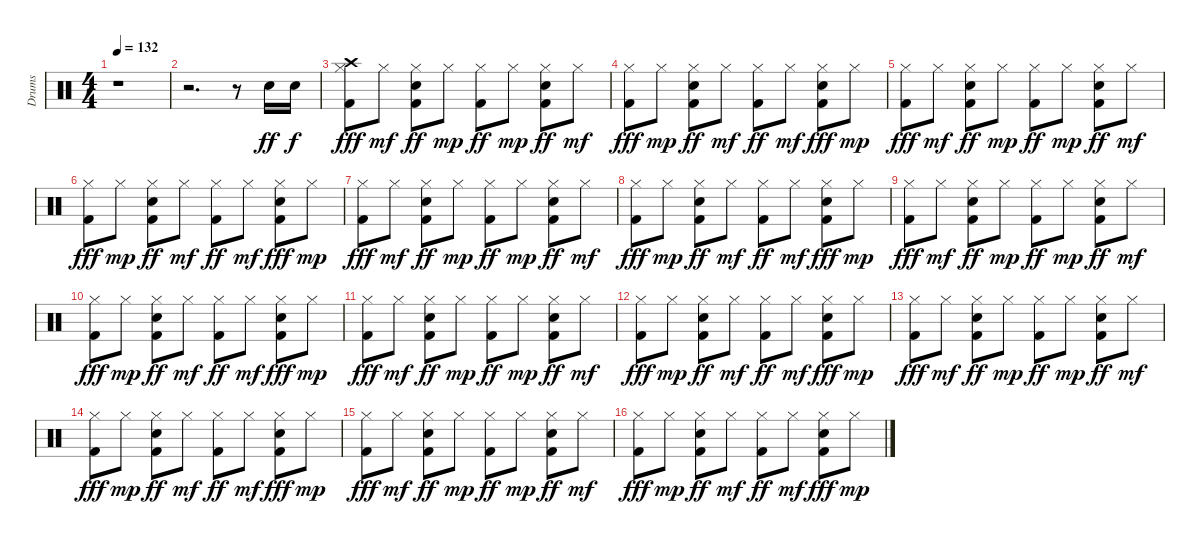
\track ("Drums" "Drums") {instrument percussion}
\staff {score}
\articulation defaults
\ts (4 4)
\tempo 132
\clef neutral
\ks c
r.1{dy ff} |
r.2{d} r.8 "Snare (hit) 2".16 "Snare (hit) 2".16{dy f} |
("Crash high (hit)" "Kick (hit) 2" "Hi-Hat (closed)").8{dy fff} "Hi-Hat (closed)".8{dy mf} ("Kick (hit) 2" "Snare (hit) 2" "Hi-Hat (closed)").8{dy ff} "Hi-Hat (closed)".8{dy mp} ("Kick (hit) 2" "Hi-Hat (closed)").8{dy ff} "Hi-Hat (closed)".8{dy mp} ("Kick (hit) 2" "Snare (hit) 2" "Hi-Hat (closed)").8{dy ff} "Hi-Hat (closed)".8{dy mf} |
("Hi-Hat (closed)" "Kick (hit) 2").8{dy fff} "Hi-Hat (closed)".8{dy mp} ("Hi-Hat (closed)" "Kick (hit) 2" "Snare (hit) 2").8{dy ff} "Hi-Hat (closed)".8{dy mf} ("Kick (hit) 2" "Hi-Hat (closed)").8{dy ff} "Hi-Hat (closed)".8{dy mf} ("Hi-Hat (closed)" "Kick (hit) 2" "Snare (hit) 2").8{dy fff} "Hi-Hat (closed)".8{dy mp} |
("Hi-Hat (closed)" "Kick (hit) 2").8{dy fff} "Hi-Hat (closed)".8{dy mf} ("Hi-Hat (closed)" "Snare (hit) 2" "Kick (hit) 2").8{dy ff} "Hi-Hat (closed)".8{dy mp} ("Hi-Hat (closed)" "Kick (hit) 2").8{dy ff} "Hi-Hat (closed)".8{dy mp} ("Hi-Hat (closed)" "Snare (hit) 2" "Kick (hit) 2").8{dy ff} "Hi-Hat (closed)".8{dy mf} |
("Kick (hit) 2" "Hi-Hat (closed)").8{dy fff} "Hi-Hat (closed)".8{dy mp} ("Snare (hit) 2" "Hi-Hat (closed)" "Kick (hit) 2").8{dy ff} "Hi-Hat (closed)".8{dy mf} ("Hi-Hat (closed)" "Kick (hit) 2").8{dy ff} "Hi-Hat (closed)".8{dy mf} ("Hi-Hat (closed)" "Snare (hit) 2" "Kick (hit) 2").8{dy fff} "Hi-Hat (closed)".8{dy mp} |
("Kick (hit) 2" "Hi-Hat (closed)").8{dy fff} "Hi-Hat (closed)".8{dy mf} ("Snare (hit) 2" "Hi-Hat (closed)" "Kick (hit) 2").8{dy ff} "Hi-Hat (closed)".8{dy mp} ("Kick (hit) 2" "Hi-Hat (closed)").8{dy ff} "Hi-Hat (closed)".8{dy mp} ("Kick (hit) 2" "Snare (hit) 2" "Hi-Hat (closed)").8{dy ff} "Hi-Hat (closed)".8{dy mf} |
("Hi-Hat (closed)" "Kick (hit) 2").8{dy fff} "Hi-Hat (closed)".8{dy mp} ("Kick (hit) 2" "Snare (hit) 2" "Hi-Hat (closed)").8{dy ff} "Hi-Hat (closed)".8{dy mf} ("Hi-Hat (closed)" "Kick (hit) 2").8{dy ff} "Hi-Hat (closed)".8{dy mf} ("Hi-Hat (closed)" "Kick (hit) 2" "Snare (hit) 2").8{dy fff} "Hi-Hat (closed)".8{dy mp} |
("Hi-Hat (closed)" "Kick (hit) 2").8{dy fff} "Hi-Hat (closed)".8{dy mf} ("Kick (hit) 2" "Hi-Hat (closed)" "Snare (hit) 2").8{dy ff} "Hi-Hat (closed)".8{dy mp} ("Hi-Hat (closed)" "Kick (hit) 2").8{dy ff} "Hi-Hat (closed)".8{dy mp} ("Hi-Hat (closed)" "Snare (hit) 2" "Kick (hit) 2").8{dy ff} "Hi-Hat (closed)".8{dy mf} |
("Kick (hit) 2" "Hi-Hat (closed)").8{dy fff} "Hi-Hat (closed)".8{dy mp} ("Kick (hit) 2" "Hi-Hat (closed)" "Snare (hit) 2").8{dy ff} "Hi-Hat (closed)".8{dy mf} ("Hi-Hat (closed)" "Kick (hit) 2").8{dy ff} "Hi-Hat (closed)".8{dy mf} ("Hi-Hat (closed)" "Snare (hit) 2" "Kick (hit) 2").8{dy fff} "Hi-Hat (closed)".8{dy mp} |
("Kick (hit) 2" "Hi-Hat (closed)").8{dy fff} "Hi-Hat (closed)".8{dy mf} ("Hi-Hat (closed)" "Snare (hit) 2" "Kick (hit) 2").8{dy ff} "Hi-Hat (closed)".8{dy mp} ("Kick (hit) 2" "Hi-Hat (closed)").8{dy ff} "Hi-Hat (closed)".8{dy mp} ("Kick (hit) 2" "Snare (hit) 2" "Hi-Hat (closed)").8{dy ff} "Hi-Hat (closed)".8{dy mf} |
("Kick (hit) 2" "Hi-Hat (closed)").8{dy fff} "Hi-Hat (closed)".8{dy mp} ("Kick (hit) 2" "Snare (hit) 2" "Hi-Hat (closed)").8{dy ff} "Hi-Hat (closed)".8{dy mf} ("Hi-Hat (closed)" "Kick (hit) 2").8{dy ff} "Hi-Hat (closed)".8{dy mf} ("Hi-Hat (closed)" "Kick (hit) 2" "Snare (hit) 2").8{dy fff} "Hi-Hat (closed)".8{dy mp} |
("Kick (hit) 2" "Hi-Hat (closed)").8{dy fff} "Hi-Hat (closed)".8{dy mf} ("Hi-Hat (closed)" "Kick (hit) 2" "Snare (hit) 2").8{dy ff} "Hi-Hat (closed)".8{dy mp} ("Hi-Hat (closed)" "Kick (hit) 2").8{dy ff} "Hi-Hat (closed)".8{dy mp} ("Hi-Hat (closed)" "Snare (hit) 2" "Kick (hit) 2").8{dy ff} "Hi-Hat (closed)".8{dy mf} |
("Kick (hit) 2" "Hi-Hat (closed)").8{dy fff} "Hi-Hat (closed)".8{dy mp} ("Hi-Hat (closed)" "Kick (hit) 2" "Snare (hit) 2").8{dy ff} "Hi-Hat (closed)".8{dy mf} ("Hi-Hat (closed)" "Kick (hit) 2").8{dy ff} "Hi-Hat (closed)".8{dy mf} ("Hi-Hat (closed)" "Snare (hit) 2" "Kick (hit) 2").8{dy fff} "Hi-Hat (closed)".8{dy mp} |
("Hi-Hat (closed)" "Kick (hit) 2").8{dy fff} "Hi-Hat (closed)".8{dy mf} ("Hi-Hat (closed)" "Snare (hit) 2" "Kick (hit) 2").8{dy ff} "Hi-Hat (closed)".8{dy mp} ("Kick (hit) 2" "Hi-Hat (closed)").8{dy ff} "Hi-Hat (closed)".8{dy mp} ("Snare (hit) 2" "Hi-Hat (closed)" "Kick (hit) 2").8{dy ff} "Hi-Hat (closed)".8{dy mf} |
("Kick (hit) 2" "Hi-Hat (closed)").8{dy fff} "Hi-Hat (closed)".8{dy mp} ("Kick (hit) 2" "Snare (hit) 2" "Hi-Hat (closed)").8{dy ff} "Hi-Hat (closed)".8{dy mf} ("Hi-Hat (closed)" "Kick (hit) 2").8{dy ff} "Hi-Hat (closed)".8{dy mf} ("Kick (hit) 2" "Snare (hit) 2" "Hi-Hat (closed)").8{dy fff} "Hi-Hat (closed)".8{dy mp}
